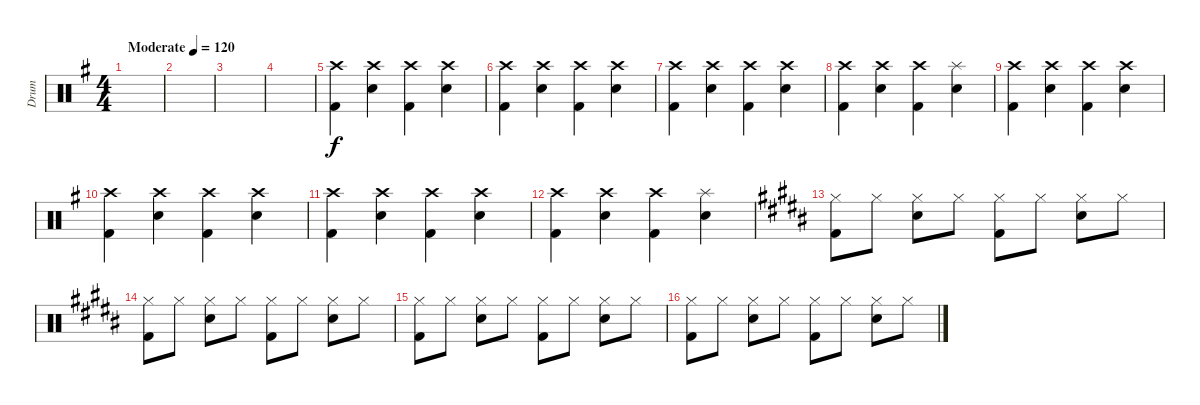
\track ("Drum" "Drum") {instrument percussion}
\staff {score}
\articulation defaults
\ts (4 4)
\tempo (120 "Moderate")
\clef neutral
\ks g
|
|
|
|
("Crash high (hit)" "Kick (hit) 2").4 ("Crash high (hit)" "Electric Snare (hit)").4 ("Crash high (hit)" "Kick (hit) 2").4 ("Crash high (hit)" "Electric Snare (hit)").4 |
("Crash high (hit)" "Kick (hit) 2").4 ("Crash high (hit)" "Electric Snare (hit)").4 ("Crash high (hit)" "Kick (hit) 2").4 ("Crash high (hit)" "Electric Snare (hit)").4 |
("Crash high (hit)" "Kick (hit) 2").4 ("Crash high (hit)" "Electric Snare (hit)").4 ("Crash high (hit)" "Kick (hit) 2").4 ("Crash high (hit)" "Electric Snare (hit)").4 |
("Crash high (hit)" "Kick (hit) 2").4 ("Crash high (hit)" "Electric Snare (hit)").4 ("Crash high (hit)" "Kick (hit) 2").4 ("Splash (hit)" "Electric Snare (hit)").4 |
("Crash high (hit)" "Kick (hit) 2").4 ("Crash high (hit)" "Electric Snare (hit)").4 ("Crash high (hit)" "Kick (hit) 2").4 ("Crash high (hit)" "Electric Snare (hit)").4 |
("Crash high (hit)" "Kick (hit) 2").4 ("Crash high (hit)" "Electric Snare (hit)").4 ("Crash high (hit)" "Kick (hit) 2").4 ("Crash high (hit)" "Electric Snare (hit)").4 |
("Crash high (hit)" "Kick (hit) 2").4 ("Crash high (hit)" "Electric Snare (hit)").4 ("Crash high (hit)" "Kick (hit) 2").4 ("Crash high (hit)" "Electric Snare (hit)").4 |
("Crash high (hit)" "Kick (hit) 2").4 ("Crash high (hit)" "Electric Snare (hit)").4 ("Crash high (hit)" "Kick (hit) 2").4 ("Splash (hit)" "Electric Snare (hit)").4 |
\ks b
("Hi-Hat (closed)" "Kick (hit) 2").8 "Hi-Hat (closed)".8 ("Hi-Hat (closed)" "Electric Snare (hit)").8 "Hi-Hat (closed)".8 ("Hi-Hat (closed)" "Kick (hit) 2").8 "Hi-Hat (closed)".8 ("Hi-Hat (closed)" "Electric Snare (hit)").8 "Hi-Hat (closed)".8 |
("Hi-Hat (closed)" "Kick (hit) 2").8 "Hi-Hat (closed)".8 ("Hi-Hat (closed)" "Electric Snare (hit)").8 "Hi-Hat (closed)".8 ("Hi-Hat (closed)" "Kick (hit) 2").8 "Hi-Hat (closed)".8 ("Hi-Hat (closed)" "Electric Snare (hit)").8 "Hi-Hat (closed)".8 |
("Hi-Hat (closed)" "Kick (hit) 2").8 "Hi-Hat (closed)".8 ("Hi-Hat (closed)" "Electric Snare (hit)").8 "Hi-Hat (closed)".8 ("Hi-Hat (closed)" "Kick (hit) 2").8 "Hi-Hat (closed)".8 ("Hi-Hat (closed)" "Electric Snare (hit)").8 "Hi-Hat (closed)".8 |
("Hi-Hat (closed)" "Kick (hit) 2").8 "Hi-Hat (closed)".8 ("Hi-Hat (closed)" "Electric Snare (hit)").8 "Hi-Hat (closed)".8 ("Hi-Hat (closed)" "Kick (hit) 2").8 "Hi-Hat (closed)".8 ("Hi-Hat (closed)" "Electric Snare (hit)").8 "Hi-Hat (closed)".8
